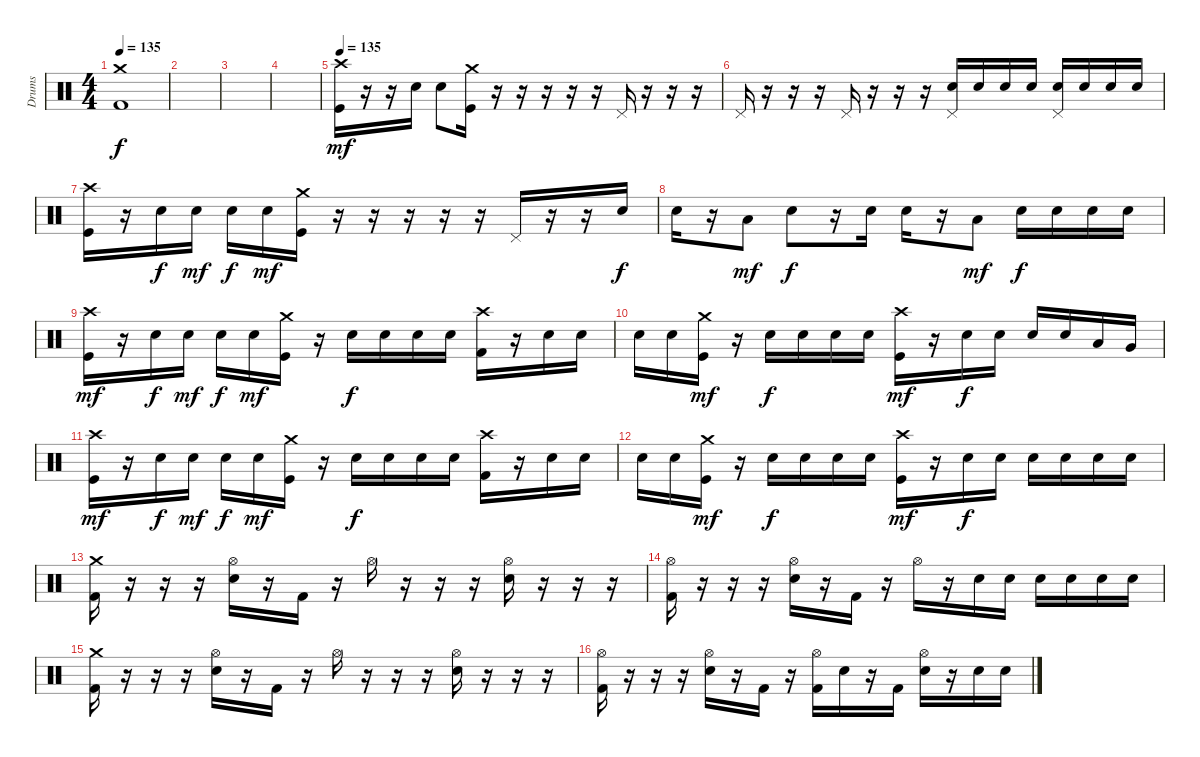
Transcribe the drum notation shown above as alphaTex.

\track ("Drums" "Drums") {instrument percussion}
\staff {score}
\articulation defaults
\ts (4 4)
\tempo 135
\clef neutral
\ks c
("Crash medium (hit)" "Kick (hit) 2").1{dy f} |
|
|
|
\tempo 135
("Crash high (hit)" "Kick (hit)").16{dy mf} r.16 r.16 "Electric Snare (hit)".16 "Electric Snare (hit)".8 ("Crash medium (hit)" "Kick (hit)").16 r.16 r.16 r.16 r.16 r.16 "Pedal Hi-Hat (hit)".16 r.16 r.16 r.16 |
"Pedal Hi-Hat (hit)".16 r.16 r.16 r.16 "Pedal Hi-Hat (hit)".16 r.16 r.16 r.16 ("Pedal Hi-Hat (hit)" "Electric Snare (hit)").16 "Electric Snare (hit)".16 "Electric Snare (hit)".16 "Electric Snare (hit)".16 ("Pedal Hi-Hat (hit)" "Electric Snare (hit)").16 "Electric Snare (hit)".16 "Electric Snare (hit)".16 "Electric Snare (hit)".16 |
("Crash high (hit)" "Kick (hit)").16 r.16 "Electric Snare (hit)".16{dy f} "Electric Snare (hit)".16{dy mf} "Electric Snare (hit)".16{dy f} "Electric Snare (hit)".16{dy mf} ("Crash medium (hit)" "Kick (hit)").16 r.16 r.16 r.16 r.16 r.16 "Pedal Hi-Hat (hit)".16 r.16 r.16 "Electric Snare (hit)".16{dy f} |
"Electric Snare (hit)".16 r.16 "Low Tom (hit)".8{dy mf} "Electric Snare (hit)".8{dy f} r.16 "Electric Snare (hit)".16 "Electric Snare (hit)".16 r.16 "Low Tom (hit)".8{dy mf} "Electric Snare (hit)".16{dy f} "Electric Snare (hit)".16 "Electric Snare (hit)".16 "Electric Snare (hit)".16 |
("Crash high (hit)" "Kick (hit)").16{dy mf} r.16 "Electric Snare (hit)".16{dy f} "Electric Snare (hit)".16{dy mf} "Electric Snare (hit)".16{dy f} "Electric Snare (hit)".16{dy mf} ("Crash medium (hit)" "Kick (hit)").16 r.16 "Electric Snare (hit)".16{dy f} "Electric Snare (hit)".16 "Electric Snare (hit)".16 "Electric Snare (hit)".16 ("Crash high (hit)" "Kick (hit) 2").16 r.16 "Electric Snare (hit)".16 "Electric Snare (hit)".16 |
"Electric Snare (hit)".16 "Electric Snare (hit)".16 ("Crash medium (hit)" "Kick (hit)").16{dy mf} r.16 "Electric Snare (hit)".16{dy f} "Electric Snare (hit)".16 "Electric Snare (hit)".16 "Electric Snare (hit)".16 ("Crash high (hit)" "Kick (hit)").16{dy mf} r.16 "Electric Snare (hit)".16{dy f} "Electric Snare (hit)".16 "Electric Snare (hit)".16 "Electric Snare (hit)".16 "Low Tom (hit)".16 "Very Low Tom (hit)".16 |
("Crash high (hit)" "Kick (hit)").16{dy mf} r.16 "Electric Snare (hit)".16{dy f} "Electric Snare (hit)".16{dy mf} "Electric Snare (hit)".16{dy f} "Electric Snare (hit)".16{dy mf} ("Crash medium (hit)" "Kick (hit)").16 r.16 "Electric Snare (hit)".16{dy f} "Electric Snare (hit)".16 "Electric Snare (hit)".16 "Electric Snare (hit)".16 ("Crash high (hit)" "Kick (hit) 2").16 r.16 "Electric Snare (hit)".16 "Electric Snare (hit)".16 |
"Electric Snare (hit)".16 "Electric Snare (hit)".16 ("Crash medium (hit)" "Kick (hit)").16{dy mf} r.16 "Electric Snare (hit)".16{dy f} "Electric Snare (hit)".16 "Electric Snare (hit)".16 "Electric Snare (hit)".16 ("Crash high (hit)" "Kick (hit)").16{dy mf} r.16 "Electric Snare (hit)".16{dy f} "Electric Snare (hit)".16 "Electric Snare (hit)".16 "Electric Snare (hit)".16 "Electric Snare (hit)".16 "Electric Snare (hit)".16 |
("Crash medium (hit)" "Kick (hit) 2").16 r.16 r.16 r.16 ("Hi-Hat (open)" "Electric Snare (hit)").16 r.16 "Kick (hit) 2".16 r.16 "Hi-Hat (open)".16 r.16 r.16 r.16 ("Hi-Hat (open)" "Electric Snare (hit)").16 r.16 r.16 r.16 |
("Hi-Hat (open)" "Kick (hit) 2").16 r.16 r.16 r.16 ("Hi-Hat (open)" "Electric Snare (hit)").16 r.16 "Kick (hit) 2".16 r.16 "Hi-Hat (open)".16 r.16 "Electric Snare (hit)".16 "Electric Snare (hit)".16 "Electric Snare (hit)".16 "Electric Snare (hit)".16 "Electric Snare (hit)".16 "Electric Snare (hit)".16 |
("Crash medium (hit)" "Kick (hit) 2").16 r.16 r.16 r.16 ("Hi-Hat (open)" "Electric Snare (hit)").16 r.16 "Kick (hit) 2".16 r.16 "Hi-Hat (open)".16 r.16 r.16 r.16 ("Hi-Hat (open)" "Electric Snare (hit)").16 r.16 r.16 r.16 |
("Hi-Hat (open)" "Kick (hit) 2").16 r.16 r.16 r.16 ("Hi-Hat (open)" "Electric Snare (hit)").16 r.16 "Kick (hit) 2".16 r.16 ("Hi-Hat (open)" "Kick (hit) 2").16 "Electric Snare (hit)".16 r.16 "Kick (hit) 2".16 ("Hi-Hat (open)" "Electric Snare (hit)").16 r.16 "Electric Snare (hit)".16 "Electric Snare (hit)".16
